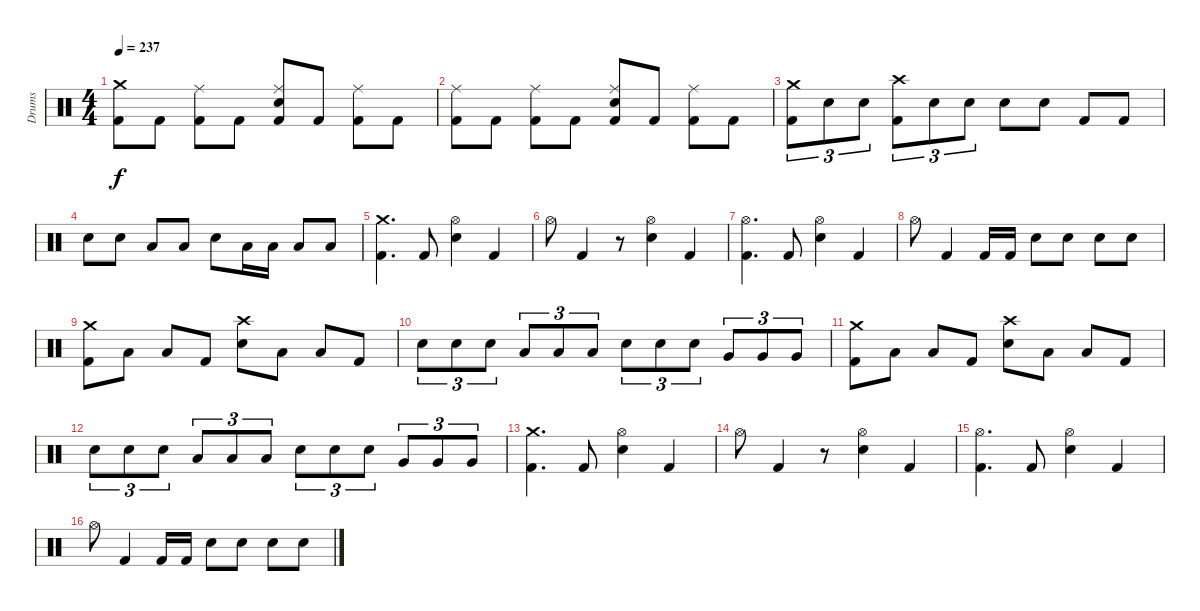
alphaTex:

\track ("Drums" "Drums") {instrument percussion}
\staff {score}
\articulation defaults
\ts (4 4)
\tempo 237
\clef neutral
\ks c
("Crash medium (hit)" "Kick (hit) 2").8{dy f} "Kick (hit) 2".8 ("Ride (middle)" "Kick (hit) 2").8 "Kick (hit) 2".8 ("Ride (middle)" "Electric Snare (hit)" "Kick (hit) 2").8 "Kick (hit) 2".8 ("Ride (middle)" "Kick (hit) 2").8 "Kick (hit) 2".8 |
("Ride (middle)" "Kick (hit) 2").8 "Kick (hit) 2".8 ("Ride (middle)" "Kick (hit) 2").8 "Kick (hit) 2".8 ("Ride (middle)" "Electric Snare (hit)" "Kick (hit) 2").8 "Kick (hit) 2".8 ("Ride (middle)" "Kick (hit) 2").8 "Kick (hit) 2".8 |
("Crash medium (hit)" "Kick (hit) 2").8{tu (3 2)} "Electric Snare (hit)".8{tu (3 2)} "Electric Snare (hit)".8{tu (3 2)} ("Crash high (hit)" "Kick (hit) 2").8{tu (3 2)} "Electric Snare (hit)".8{tu (3 2)} "Electric Snare (hit)".8{tu (3 2)} "Electric Snare (hit)".8 "Electric Snare (hit)".8 "Kick (hit) 2".8 "Kick (hit) 2".8 |
"Electric Snare (hit)".8 "Electric Snare (hit)".8 "Low Tom (hit)".8 "Low Tom (hit)".8 "Electric Snare (hit)".8 "Low Tom (hit)".16 "Low Tom (hit)".16 "Low Tom (hit)".8 "Low Tom (hit)".8 |
("Crash medium (hit)" "Kick (hit) 2").4{d} "Kick (hit) 2".8 ("Hi-Hat (open)" "Electric Snare (hit)").4 "Kick (hit) 2".4 |
"Hi-Hat (open)".8 "Kick (hit) 2".4 r.8 ("Hi-Hat (open)" "Electric Snare (hit)").4 "Kick (hit) 2".4 |
("Hi-Hat (open)" "Kick (hit) 2").4{d} "Kick (hit) 2".8 ("Hi-Hat (open)" "Electric Snare (hit)").4 "Kick (hit) 2".4 |
"Hi-Hat (open)".8 "Kick (hit) 2".4 "Kick (hit) 2".16 "Kick (hit) 2".16 "Electric Snare (hit)".8 "Electric Snare (hit)".8 "Electric Snare (hit)".8 "Electric Snare (hit)".8 |
("Crash medium (hit)" "Kick (hit) 2").8 "Low Tom (hit)".8 "Low Tom (hit)".8 "Kick (hit) 2".8 ("Crash high (hit)" "Electric Snare (hit)").8 "Low Tom (hit)".8 "Low Tom (hit)".8 "Kick (hit) 2".8 |
"Electric Snare (hit)".8{tu (3 2)} "Electric Snare (hit)".8{tu (3 2)} "Electric Snare (hit)".8{tu (3 2)} "Low Tom (hit)".8{tu (3 2)} "Low Tom (hit)".8{tu (3 2)} "Low Tom (hit)".8{tu (3 2)} "Electric Snare (hit)".8{tu (3 2)} "Electric Snare (hit)".8{tu (3 2)} "Electric Snare (hit)".8{tu (3 2)} "Very Low Tom (hit)".8{tu (3 2)} "Very Low Tom (hit)".8{tu (3 2)} "Very Low Tom (hit)".8{tu (3 2)} |
("Crash medium (hit)" "Kick (hit) 2").8 "Low Tom (hit)".8 "Low Tom (hit)".8 "Kick (hit) 2".8 ("Crash high (hit)" "Electric Snare (hit)").8 "Low Tom (hit)".8 "Low Tom (hit)".8 "Kick (hit) 2".8 |
"Electric Snare (hit)".8{tu (3 2)} "Electric Snare (hit)".8{tu (3 2)} "Electric Snare (hit)".8{tu (3 2)} "Low Tom (hit)".8{tu (3 2)} "Low Tom (hit)".8{tu (3 2)} "Low Tom (hit)".8{tu (3 2)} "Electric Snare (hit)".8{tu (3 2)} "Electric Snare (hit)".8{tu (3 2)} "Electric Snare (hit)".8{tu (3 2)} "Very Low Tom (hit)".8{tu (3 2)} "Very Low Tom (hit)".8{tu (3 2)} "Very Low Tom (hit)".8{tu (3 2)} |
("Crash medium (hit)" "Kick (hit) 2").4{d} "Kick (hit) 2".8 ("Hi-Hat (open)" "Electric Snare (hit)").4 "Kick (hit) 2".4 |
"Hi-Hat (open)".8 "Kick (hit) 2".4 r.8 ("Hi-Hat (open)" "Electric Snare (hit)").4 "Kick (hit) 2".4 |
("Hi-Hat (open)" "Kick (hit) 2").4{d} "Kick (hit) 2".8 ("Hi-Hat (open)" "Electric Snare (hit)").4 "Kick (hit) 2".4 |
"Hi-Hat (open)".8 "Kick (hit) 2".4 "Kick (hit) 2".16 "Kick (hit) 2".16 "Electric Snare (hit)".8 "Electric Snare (hit)".8 "Electric Snare (hit)".8 "Electric Snare (hit)".8
